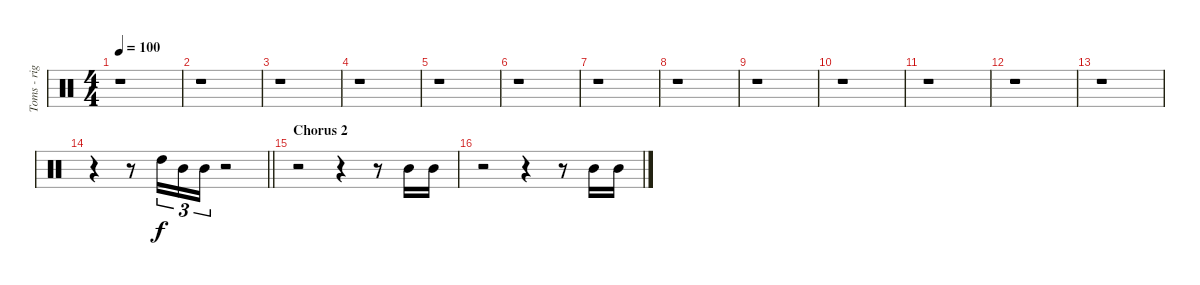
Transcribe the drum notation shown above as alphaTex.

\track ("Toms - right" "Toms - rig") {instrument percussion}
\staff {score}
\articulation defaults
\ts (4 4)
\tempo 100
\clef neutral
\ks c
r.1{dy f} |
r.1 |
r.1 |
r.1 |
r.1 |
r.1 |
r.1 |
r.1 |
r.1 |
r.1 |
r.1 |
r.1 |
r.1 |
\barLineRight lightlight
r.4 r.8 "High Tom (hit)".16{tu (3 2)} "Mid Tom (hit)".16{tu (3 2)} "Mid Tom (hit)".16{tu (3 2)} r.2 |
\section ("" "Chorus 2")
r.2 r.4 r.8 "Mid Tom (hit)".16 "Mid Tom (hit)".16 |
r.2 r.4 r.8 "Mid Tom (hit)".16 "Mid Tom (hit)".16
